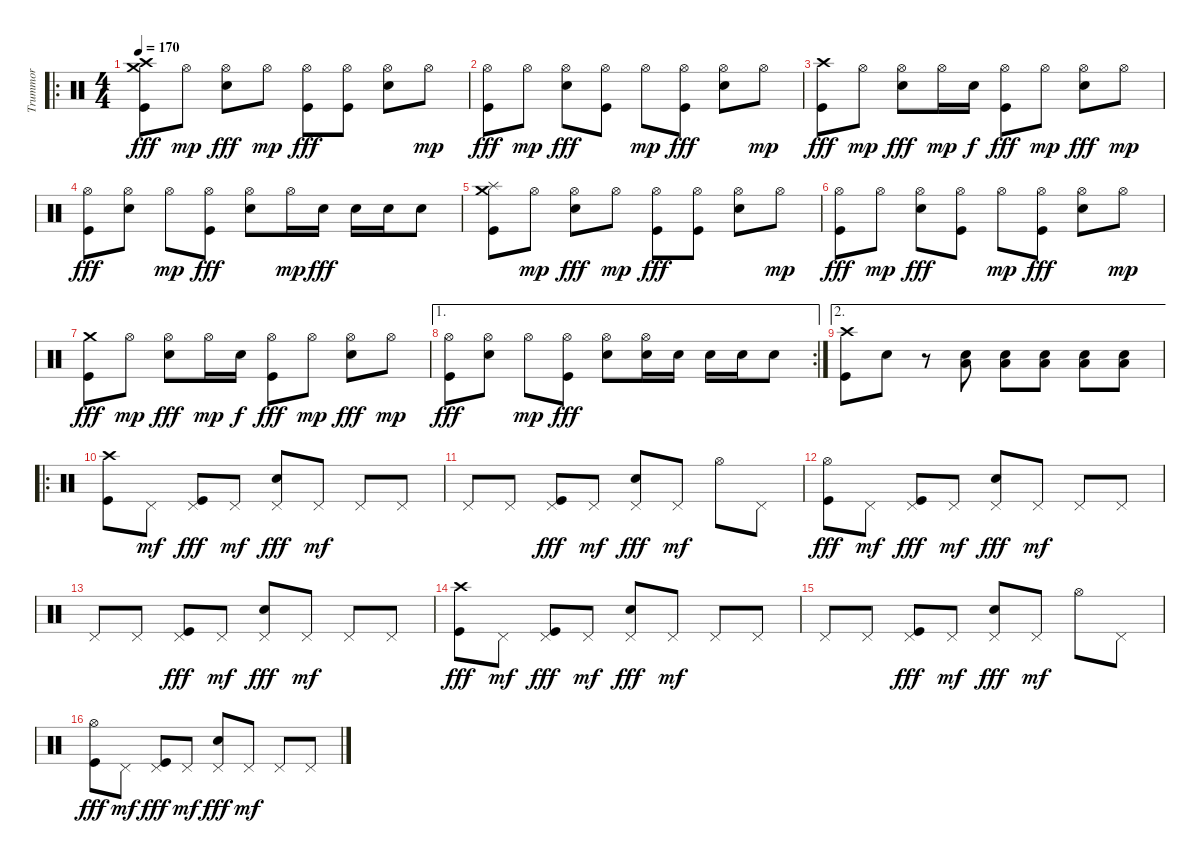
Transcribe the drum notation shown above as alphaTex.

\track ("Trummor" "Trummor") {instrument percussion}
\staff {score}
\articulation defaults
\ro
\ts (4 4)
\tempo 170
\clef neutral
\ks c
("Crash medium (hit)" "Crash high (hit)" "Kick (hit)").8{dy fff} "Hi-Hat (open)".8{dy mp} ("Hi-Hat (open)" "Electric Snare (hit)").8{dy fff} "Hi-Hat (open)".8{dy mp} ("Hi-Hat (open)" "Kick (hit)").8{dy fff} ("Hi-Hat (open)" "Kick (hit)").8 ("Hi-Hat (open)" "Electric Snare (hit)").8 "Hi-Hat (open)".8{dy mp} |
("Hi-Hat (open)" "Kick (hit)").8{dy fff} "Hi-Hat (open)".8{dy mp} ("Hi-Hat (open)" "Electric Snare (hit)").8{dy fff} ("Hi-Hat (open)" "Kick (hit)").8 "Hi-Hat (open)".8{dy mp} ("Hi-Hat (open)" "Kick (hit)").8{dy fff} ("Hi-Hat (open)" "Electric Snare (hit)").8 "Hi-Hat (open)".8{dy mp} |
("Crash high (hit)" "Kick (hit)").8{dy fff} "Hi-Hat (open)".8{dy mp} ("Hi-Hat (open)" "Electric Snare (hit)").8{dy fff} "Hi-Hat (open)".16{dy mp} "Electric Snare (hit)".16{dy f} ("Hi-Hat (open)" "Kick (hit)").8{dy fff} "Hi-Hat (open)".8{dy mp} ("Hi-Hat (open)" "Electric Snare (hit)").8{dy fff} "Hi-Hat (open)".8{dy mp} |
("Hi-Hat (open)" "Kick (hit)").8{dy fff} ("Hi-Hat (open)" "Electric Snare (hit)").8 "Hi-Hat (open)".8{dy mp} ("Hi-Hat (open)" "Kick (hit)").8{dy fff} ("Hi-Hat (open)" "Electric Snare (hit)").8 "Hi-Hat (open)".16{dy mp} "Electric Snare (hit)".16{dy fff} "Electric Snare (hit)".16 "Electric Snare (hit)".16 "Electric Snare (hit)".8 |
("Crash medium (hit)" "Splash (hit)" "Kick (hit)").8 "Hi-Hat (open)".8{dy mp} ("Hi-Hat (open)" "Electric Snare (hit)").8{dy fff} "Hi-Hat (open)".8{dy mp} ("Hi-Hat (open)" "Kick (hit)").8{dy fff} ("Hi-Hat (open)" "Kick (hit)").8 ("Hi-Hat (open)" "Electric Snare (hit)").8 "Hi-Hat (open)".8{dy mp} |
("Hi-Hat (open)" "Kick (hit)").8{dy fff} "Hi-Hat (open)".8{dy mp} ("Hi-Hat (open)" "Electric Snare (hit)").8{dy fff} ("Hi-Hat (open)" "Kick (hit)").8 "Hi-Hat (open)".8{dy mp} ("Hi-Hat (open)" "Kick (hit)").8{dy fff} ("Hi-Hat (open)" "Electric Snare (hit)").8 "Hi-Hat (open)".8{dy mp} |
("Crash medium (hit)" "Kick (hit)").8{dy fff} "Hi-Hat (open)".8{dy mp} ("Hi-Hat (open)" "Electric Snare (hit)").8{dy fff} "Hi-Hat (open)".16{dy mp} "Electric Snare (hit)".16{dy f} ("Hi-Hat (open)" "Kick (hit)").8{dy fff} "Hi-Hat (open)".8{dy mp} ("Hi-Hat (open)" "Electric Snare (hit)").8{dy fff} "Hi-Hat (open)".8{dy mp} |
\ae 1
\rc 2
("Hi-Hat (open)" "Kick (hit)").8{dy fff} ("Hi-Hat (open)" "Electric Snare (hit)").8 "Hi-Hat (open)".8{dy mp} ("Hi-Hat (open)" "Kick (hit)").8{dy fff} ("Hi-Hat (open)" "Electric Snare (hit)").8 ("Hi-Hat (open)" "Electric Snare (hit)").16 "Electric Snare (hit)".16 "Electric Snare (hit)".16 "Electric Snare (hit)".16 "Electric Snare (hit)".8 |
\ae 2
("Crash high (hit)" "Kick (hit)").8 "Electric Snare (hit)".8 r.8 ("Low Floor Tom (hit)" "Electric Snare (hit)").8 ("Low Floor Tom (hit)" "Electric Snare (hit)").8 ("Low Floor Tom (hit)" "Electric Snare (hit)").8 ("Low Floor Tom (hit)" "Electric Snare (hit)").8 ("Low Floor Tom (hit)" "Electric Snare (hit)").8 |
\ro
("Crash high (hit)" "Kick (hit)").8 "Pedal Hi-Hat (hit)".8{dy mf} ("Pedal Hi-Hat (hit)" "Kick (hit)").8{dy fff} "Pedal Hi-Hat (hit)".8{dy mf} ("Pedal Hi-Hat (hit)" "Electric Snare (hit)").8{dy fff} "Pedal Hi-Hat (hit)".8{dy mf} "Pedal Hi-Hat (hit)".8 "Pedal Hi-Hat (hit)".8 |
"Pedal Hi-Hat (hit)".8 "Pedal Hi-Hat (hit)".8 ("Pedal Hi-Hat (hit)" "Kick (hit)").8{dy fff} "Pedal Hi-Hat (hit)".8{dy mf} ("Pedal Hi-Hat (hit)" "Electric Snare (hit)").8{dy fff} "Pedal Hi-Hat (hit)".8{dy mf} "Hi-Hat (open)".8 "Pedal Hi-Hat (hit)".8 |
("Hi-Hat (open)" "Kick (hit)").8{dy fff} "Pedal Hi-Hat (hit)".8{dy mf} ("Pedal Hi-Hat (hit)" "Kick (hit)").8{dy fff} "Pedal Hi-Hat (hit)".8{dy mf} ("Pedal Hi-Hat (hit)" "Electric Snare (hit)").8{dy fff} "Pedal Hi-Hat (hit)".8{dy mf} "Pedal Hi-Hat (hit)".8 "Pedal Hi-Hat (hit)".8 |
"Pedal Hi-Hat (hit)".8 "Pedal Hi-Hat (hit)".8 ("Pedal Hi-Hat (hit)" "Kick (hit)").8{dy fff} "Pedal Hi-Hat (hit)".8{dy mf} ("Pedal Hi-Hat (hit)" "Electric Snare (hit)").8{dy fff} "Pedal Hi-Hat (hit)".8{dy mf} "Pedal Hi-Hat (hit)".8 "Pedal Hi-Hat (hit)".8 |
("Crash high (hit)" "Kick (hit)").8{dy fff} "Pedal Hi-Hat (hit)".8{dy mf} ("Pedal Hi-Hat (hit)" "Kick (hit)").8{dy fff} "Pedal Hi-Hat (hit)".8{dy mf} ("Pedal Hi-Hat (hit)" "Electric Snare (hit)").8{dy fff} "Pedal Hi-Hat (hit)".8{dy mf} "Pedal Hi-Hat (hit)".8 "Pedal Hi-Hat (hit)".8 |
"Pedal Hi-Hat (hit)".8 "Pedal Hi-Hat (hit)".8 ("Pedal Hi-Hat (hit)" "Kick (hit)").8{dy fff} "Pedal Hi-Hat (hit)".8{dy mf} ("Pedal Hi-Hat (hit)" "Electric Snare (hit)").8{dy fff} "Pedal Hi-Hat (hit)".8{dy mf} "Hi-Hat (open)".8 "Pedal Hi-Hat (hit)".8 |
("Hi-Hat (open)" "Kick (hit)").8{dy fff} "Pedal Hi-Hat (hit)".8{dy mf} ("Pedal Hi-Hat (hit)" "Kick (hit)").8{dy fff} "Pedal Hi-Hat (hit)".8{dy mf} ("Pedal Hi-Hat (hit)" "Electric Snare (hit)").8{dy fff} "Pedal Hi-Hat (hit)".8{dy mf} "Pedal Hi-Hat (hit)".8 "Pedal Hi-Hat (hit)".8
